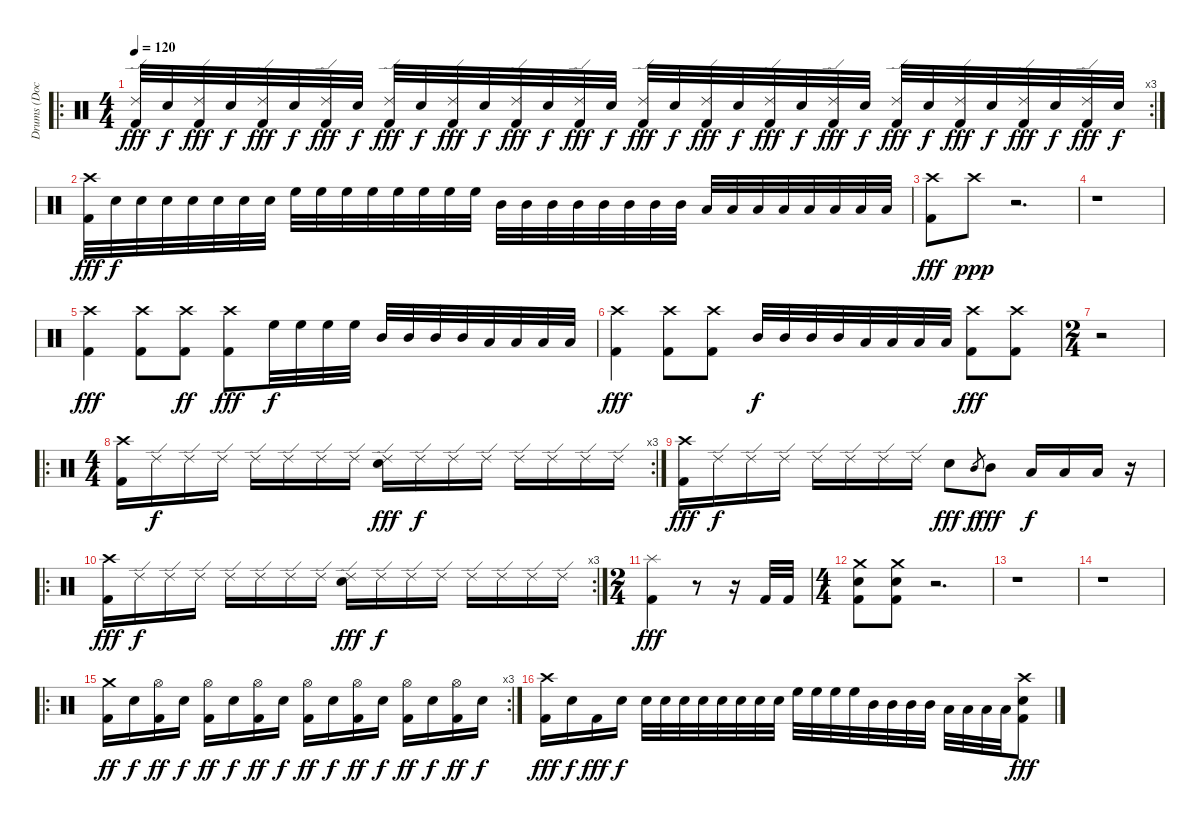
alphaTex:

\track ("Drums (Doc)" "Drums (Doc") {instrument percussion}
\staff {score}
\articulation defaults
\ro
\rc 3
\ts (4 4)
\tempo 120
\clef neutral
\ks c
("Ride (edge) 2" "Kick (hit) 2").32{dy fff} "Electric Snare (hit)".32{dy f} ("Ride (edge) 2" "Kick (hit) 2").32{dy fff} "Electric Snare (hit)".32{dy f} ("Ride (edge) 2" "Kick (hit) 2").32{dy fff} "Electric Snare (hit)".32{dy f} ("Ride (edge) 2" "Kick (hit) 2").32{dy fff} "Electric Snare (hit)".32{dy f} ("Ride (edge) 2" "Kick (hit) 2").32{dy fff} "Electric Snare (hit)".32{dy f} ("Ride (edge) 2" "Kick (hit) 2").32{dy fff} "Electric Snare (hit)".32{dy f} ("Ride (edge) 2" "Kick (hit) 2").32{dy fff} "Electric Snare (hit)".32{dy f} ("Ride (edge) 2" "Kick (hit) 2").32{dy fff} "Electric Snare (hit)".32{dy f} ("Ride (edge) 2" "Kick (hit) 2").32{dy fff} "Electric Snare (hit)".32{dy f} ("Ride (edge) 2" "Kick (hit) 2").32{dy fff} "Electric Snare (hit)".32{dy f} ("Ride (edge) 2" "Kick (hit) 2").32{dy fff} "Electric Snare (hit)".32{dy f} ("Ride (edge) 2" "Kick (hit) 2").32{dy fff} "Electric Snare (hit)".32{dy f} ("Ride (edge) 2" "Kick (hit) 2").32{dy fff} "Electric Snare (hit)".32{dy f} ("Ride (edge) 2" "Kick (hit) 2").32{dy fff} "Electric Snare (hit)".32{dy f} ("Ride (edge) 2" "Kick (hit) 2").32{dy fff} "Electric Snare (hit)".32{dy f} ("Ride (edge) 2" "Kick (hit) 2").32{dy fff} "Electric Snare (hit)".32{dy f} |
("Crash high (hit)" "Kick (hit) 2").32{dy fff} "Electric Snare (hit)".32{dy f} "Electric Snare (hit)".32 "Electric Snare (hit)".32 "Electric Snare (hit)".32 "Electric Snare (hit)".32 "Electric Snare (hit)".32 "Electric Snare (hit)".32 "High Floor Tom (hit)".32 "High Floor Tom (hit)".32 "High Floor Tom (hit)".32 "High Floor Tom (hit)".32 "High Floor Tom (hit)".32 "High Floor Tom (hit)".32 "High Floor Tom (hit)".32 "High Floor Tom (hit)".32 "Mid Tom (hit)".32 "Mid Tom (hit)".32 "Mid Tom (hit)".32 "Mid Tom (hit)".32 "Mid Tom (hit)".32 "Mid Tom (hit)".32 "Mid Tom (hit)".32 "Mid Tom (hit)".32 "Low Tom (hit)".32 "Low Tom (hit)".32 "Low Tom (hit)".32 "Low Tom (hit)".32 "Low Tom (hit)".32 "Low Tom (hit)".32 "Low Tom (hit)".32 "Low Tom (hit)".32 |
("Crash high (hit)" "Kick (hit) 2").8{dy fff} "Crash high (hit)".8{dy ppp} r.2{d} |
r.1 |
("Crash high (hit)" "Kick (hit) 2").4{dy fff} ("Crash high (hit)" "Kick (hit) 2").8 ("Crash high (hit)" "Kick (hit) 2").8{dy ff} ("Crash high (hit)" "Kick (hit) 2").8{dy fff} "High Floor Tom (hit)".32{dy f} "High Floor Tom (hit)".32 "High Floor Tom (hit)".32 "High Floor Tom (hit)".32 "Mid Tom (hit)".32 "Mid Tom (hit)".32 "Mid Tom (hit)".32 "Mid Tom (hit)".32 "Low Tom (hit)".32 "Low Tom (hit)".32 "Low Tom (hit)".32 "Low Tom (hit)".32 |
("Crash high (hit)" "Kick (hit) 2").4{dy fff} ("Crash high (hit)" "Kick (hit) 2").8 ("Crash high (hit)" "Kick (hit) 2").8 "Mid Tom (hit)".32{dy f} "Mid Tom (hit)".32 "Mid Tom (hit)".32 "Mid Tom (hit)".32 "Low Tom (hit)".32 "Low Tom (hit)".32 "Low Tom (hit)".32 "Low Tom (hit)".32 ("Crash high (hit)" "Kick (hit) 2").8{dy fff} ("Crash high (hit)" "Kick (hit) 2").8 |
\ts (2 4)
r.2 |
\ro
\rc 3
\ts (4 4)
("Crash high (hit)" "Kick (hit) 2").16 "Ride (edge) 2".16{dy f} "Ride (edge) 2".16 "Ride (edge) 2".16 "Ride (edge) 2".16 "Ride (edge) 2".16 "Ride (edge) 2".16 "Ride (edge) 2".16 ("Ride (edge) 2" "Electric Snare (hit)").16{dy fff} "Ride (edge) 2".16{dy f} "Ride (edge) 2".16 "Ride (edge) 2".16 "Ride (edge) 2".16 "Ride (edge) 2".16 "Ride (edge) 2".16 "Ride (edge) 2".16 |
("Crash high (hit)" "Kick (hit) 2").16{dy fff} "Ride (edge) 2".16{dy f} "Ride (edge) 2".16 "Ride (edge) 2".16 "Ride (edge) 2".16 "Ride (edge) 2".16 "Ride (edge) 2".16 "Ride (edge) 2".16 "Electric Snare (hit)".8{dy fff} "Mid Tom (hit)".8{gr dy f} "Mid Tom (hit)".8{dy fff} "Low Tom (hit)".16{dy f} "Low Tom (hit)".16 "Low Tom (hit)".16 r.16 |
\ro
\rc 3
("Crash high (hit)" "Kick (hit) 2").16{dy fff} "Ride (edge) 2".16{dy f} "Ride (edge) 2".16 "Ride (edge) 2".16 "Ride (edge) 2".16 "Ride (edge) 2".16 "Ride (edge) 2".16 "Ride (edge) 2".16 ("Ride (edge) 2" "Electric Snare (hit)").16{dy fff} "Ride (edge) 2".16{dy f} "Ride (edge) 2".16 "Ride (edge) 2".16 "Ride (edge) 2".16 "Ride (edge) 2".16 "Ride (edge) 2".16 "Ride (edge) 2".16 |
\ts (2 4)
("Splash (hit)" "Kick (hit) 2").4{dy fff} r.8 r.16 "Kick (hit) 2".32 "Kick (hit) 2".32 |
\ts (4 4)
("Crash medium (hit)" "Electric Snare (hit)" "Kick (hit) 2").8 ("Crash medium (hit)" "Electric Snare (hit)" "Kick (hit) 2").8 r.2{d} |
r.1 |
r.1 |
\ro
\rc 3
("Crash medium (hit)" "Kick (hit) 2").16{dy ff} "Electric Snare (hit)".16{dy f} ("Hi-Hat (open)" "Kick (hit) 2").16{dy ff} "Electric Snare (hit)".16{dy f} ("Hi-Hat (open)" "Kick (hit) 2").16{dy ff} "Electric Snare (hit)".16{dy f} ("Hi-Hat (open)" "Kick (hit) 2").16{dy ff} "Electric Snare (hit)".16{dy f} ("Hi-Hat (open)" "Kick (hit) 2").16{dy ff} "Electric Snare (hit)".16{dy f} ("Hi-Hat (open)" "Kick (hit) 2").16{dy ff} "Electric Snare (hit)".16{dy f} ("Hi-Hat (open)" "Kick (hit) 2").16{dy ff} "Electric Snare (hit)".16{dy f} ("Hi-Hat (open)" "Kick (hit) 2").16{dy ff} "Electric Snare (hit)".16{dy f} |
("Crash high (hit)" "Kick (hit) 2").16{dy fff} "Electric Snare (hit)".16{dy f} "Kick (hit) 2".16{dy fff} "Electric Snare (hit)".16{dy f} "Electric Snare (hit)".32 "Electric Snare (hit)".32 "Electric Snare (hit)".32 "Electric Snare (hit)".32 "Electric Snare (hit)".32 "Electric Snare (hit)".32 "Electric Snare (hit)".32 "Electric Snare (hit)".32 "High Floor Tom (hit)".32 "High Floor Tom (hit)".32 "High Floor Tom (hit)".32 "High Floor Tom (hit)".32 "Mid Tom (hit)".32 "Mid Tom (hit)".32 "Mid Tom (hit)".32 "Mid Tom (hit)".32 "Low Tom (hit)".32 "Low Tom (hit)".32 "Low Tom (hit)".32 "Low Tom (hit)".32 ("Crash high (hit)" "Electric Snare (hit)" "Kick (hit) 2").8{dy fff}
